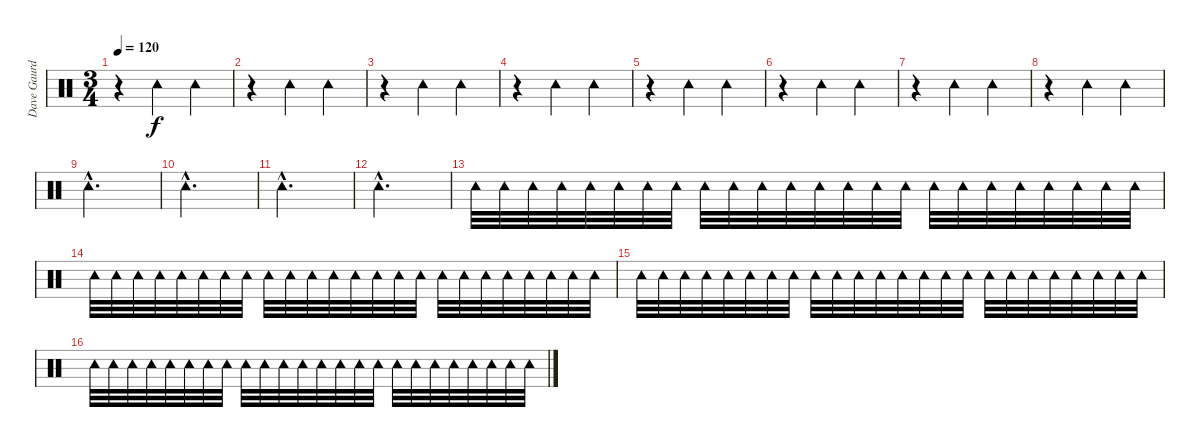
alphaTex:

\track ("Dave Gaurd" "Dave Gaurd") {instrument percussion}
\staff {score}
\articulation defaults
\ts (3 4)
\tempo 120
\clef neutral
\ks c
r.4{dy f} "Tambourine (hit)".4 "Tambourine (hit)".4 |
r.4 "Tambourine (hit)".4 "Tambourine (hit)".4 |
r.4 "Tambourine (hit)".4 "Tambourine (hit)".4 |
r.4 "Tambourine (hit)".4 "Tambourine (hit)".4 |
r.4 "Tambourine (hit)".4 "Tambourine (hit)".4 |
r.4 "Tambourine (hit)".4 "Tambourine (hit)".4 |
r.4 "Tambourine (hit)".4 "Tambourine (hit)".4 |
r.4 "Tambourine (hit)".4 "Tambourine (hit)".4 |
"Tambourine (hit)"{hac}.2{d} |
"Tambourine (hit)"{hac}.2{d} |
"Tambourine (hit)"{hac}.2{d} |
"Tambourine (hit)"{hac}.2{d} |
"Tambourine (hit)".32 "Tambourine (hit)".32 "Tambourine (hit)".32 "Tambourine (hit)".32 "Tambourine (hit)".32 "Tambourine (hit)".32 "Tambourine (hit)".32 "Tambourine (hit)".32 "Tambourine (hit)".32 "Tambourine (hit)".32 "Tambourine (hit)".32 "Tambourine (hit)".32 "Tambourine (hit)".32 "Tambourine (hit)".32 "Tambourine (hit)".32 "Tambourine (hit)".32 "Tambourine (hit)".32 "Tambourine (hit)".32 "Tambourine (hit)".32 "Tambourine (hit)".32 "Tambourine (hit)".32 "Tambourine (hit)".32 "Tambourine (hit)".32 "Tambourine (hit)".32 |
"Tambourine (hit)".32 "Tambourine (hit)".32 "Tambourine (hit)".32 "Tambourine (hit)".32 "Tambourine (hit)".32 "Tambourine (hit)".32 "Tambourine (hit)".32 "Tambourine (hit)".32 "Tambourine (hit)".32 "Tambourine (hit)".32 "Tambourine (hit)".32 "Tambourine (hit)".32 "Tambourine (hit)".32 "Tambourine (hit)".32 "Tambourine (hit)".32 "Tambourine (hit)".32 "Tambourine (hit)".32 "Tambourine (hit)".32 "Tambourine (hit)".32 "Tambourine (hit)".32 "Tambourine (hit)".32 "Tambourine (hit)".32 "Tambourine (hit)".32 "Tambourine (hit)".32 |
"Tambourine (hit)".32 "Tambourine (hit)".32 "Tambourine (hit)".32 "Tambourine (hit)".32 "Tambourine (hit)".32 "Tambourine (hit)".32 "Tambourine (hit)".32 "Tambourine (hit)".32 "Tambourine (hit)".32 "Tambourine (hit)".32 "Tambourine (hit)".32 "Tambourine (hit)".32 "Tambourine (hit)".32 "Tambourine (hit)".32 "Tambourine (hit)".32 "Tambourine (hit)".32 "Tambourine (hit)".32 "Tambourine (hit)".32 "Tambourine (hit)".32 "Tambourine (hit)".32 "Tambourine (hit)".32 "Tambourine (hit)".32 "Tambourine (hit)".32 "Tambourine (hit)".32 |
"Tambourine (hit)".32 "Tambourine (hit)".32 "Tambourine (hit)".32 "Tambourine (hit)".32 "Tambourine (hit)".32 "Tambourine (hit)".32 "Tambourine (hit)".32 "Tambourine (hit)".32 "Tambourine (hit)".32 "Tambourine (hit)".32 "Tambourine (hit)".32 "Tambourine (hit)".32 "Tambourine (hit)".32 "Tambourine (hit)".32 "Tambourine (hit)".32 "Tambourine (hit)".32 "Tambourine (hit)".32 "Tambourine (hit)".32 "Tambourine (hit)".32 "Tambourine (hit)".32 "Tambourine (hit)".32 "Tambourine (hit)".32 "Tambourine (hit)".32 "Tambourine (hit)".32
